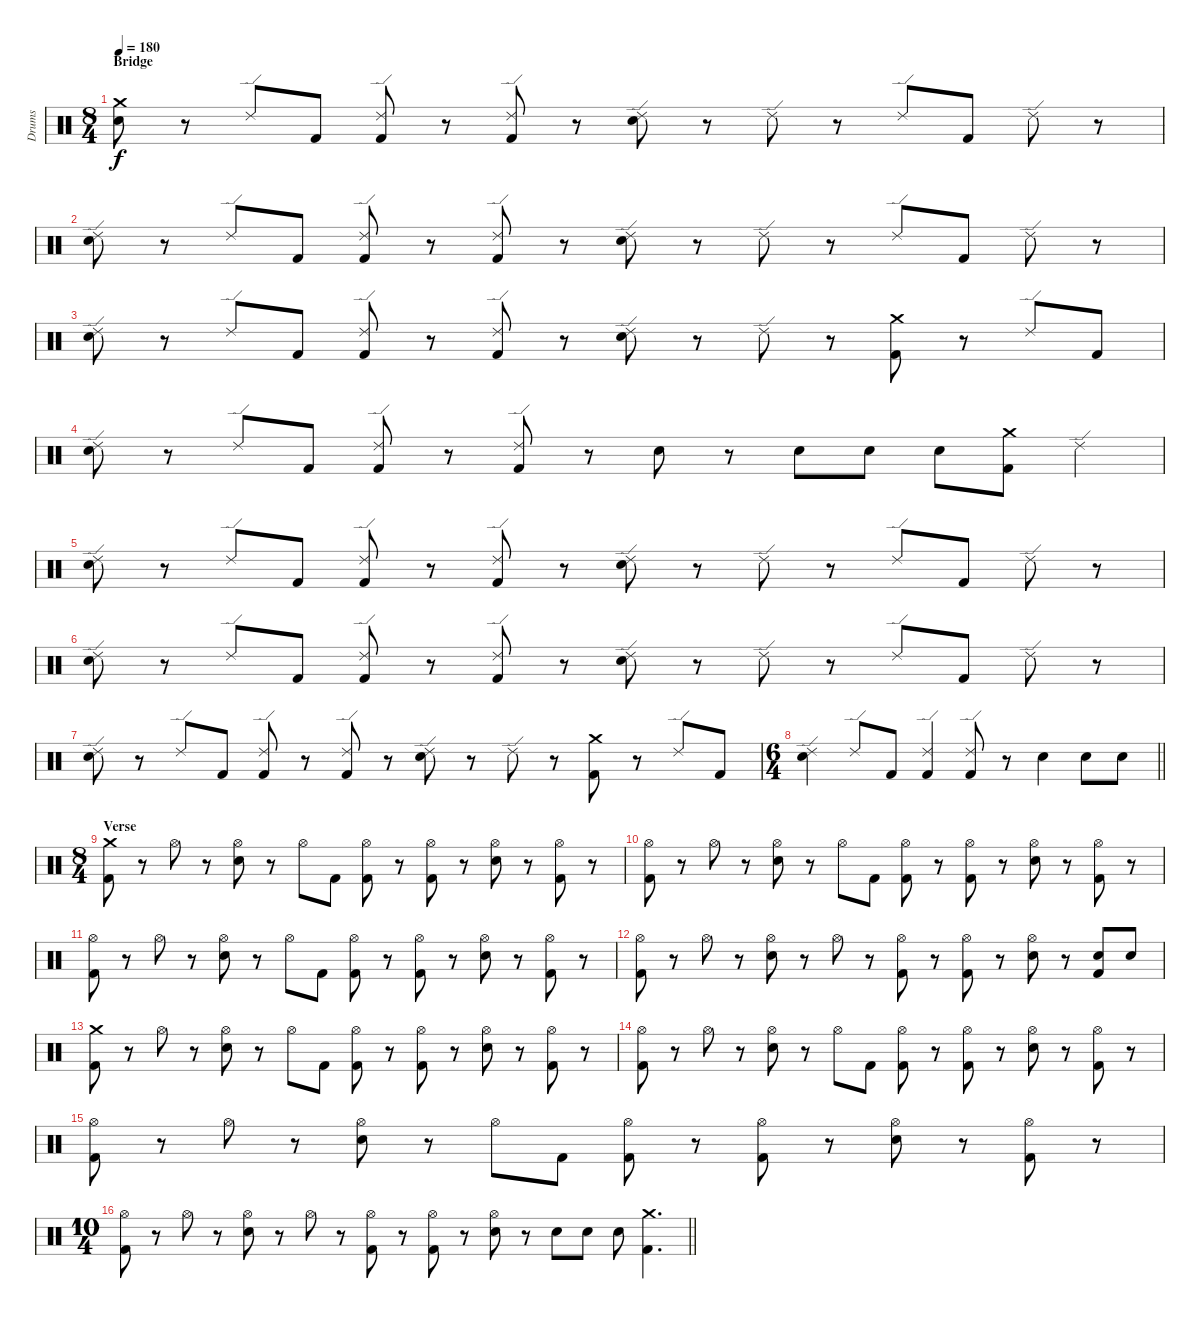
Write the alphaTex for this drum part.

\track ("Drums" "Drums") {instrument percussion}
\staff {score}
\articulation defaults
\ts (8 4)
\section ("" "Bridge")
\tempo 180
\clef neutral
\ks c
("Crash medium (hit)" "Snare (hit) 2").8{dy f} r.8 "Ride (edge) 2".8 "Kick (hit) 2".8 ("Ride (edge) 2" "Kick (hit) 2").8 r.8 ("Kick (hit) 2" "Ride (edge) 2").8 r.8 ("Ride (edge) 2" "Snare (hit) 2").8 r.8 "Ride (edge) 2".8 r.8 "Ride (edge) 2".8 "Kick (hit) 2".8 "Ride (edge) 2".8 r.8 |
("Ride (edge) 2" "Snare (hit) 2").8 r.8 "Ride (edge) 2".8 "Kick (hit) 2".8 ("Ride (edge) 2" "Kick (hit) 2").8 r.8 ("Ride (edge) 2" "Kick (hit) 2").8 r.8 ("Ride (edge) 2" "Snare (hit) 2").8 r.8 "Ride (edge) 2".8 r.8 "Ride (edge) 2".8 "Kick (hit) 2".8 "Ride (edge) 2".8 r.8 |
("Ride (edge) 2" "Snare (hit) 2").8 r.8 "Ride (edge) 2".8 "Kick (hit) 2".8 ("Ride (edge) 2" "Kick (hit) 2").8 r.8 ("Ride (edge) 2" "Kick (hit) 2").8 r.8 ("Ride (edge) 2" "Snare (hit) 2").8 r.8 "Ride (edge) 2".8 r.8 ("Crash medium (hit)" "Kick (hit) 2").8 r.8 "Ride (edge) 2".8 "Kick (hit) 2".8 |
("Ride (edge) 2" "Snare (hit) 2").8 r.8 "Ride (edge) 2".8 "Kick (hit) 2".8 ("Ride (edge) 2" "Kick (hit) 2").8 r.8 ("Ride (edge) 2" "Kick (hit) 2").8 r.8 "Snare (hit) 2".8 r.8 "Snare (hit) 2".8 "Snare (hit) 2".8 "Snare (hit) 2".8 ("Crash medium (hit)" "Kick (hit) 2").8 "Ride (edge) 2".4 |
("Ride (edge) 2" "Snare (hit) 2").8 r.8 "Ride (edge) 2".8 "Kick (hit) 2".8 ("Ride (edge) 2" "Kick (hit) 2").8 r.8 ("Kick (hit) 2" "Ride (edge) 2").8 r.8 ("Ride (edge) 2" "Snare (hit) 2").8 r.8 "Ride (edge) 2".8 r.8 "Ride (edge) 2".8 "Kick (hit) 2".8 "Ride (edge) 2".8 r.8 |
("Ride (edge) 2" "Snare (hit) 2").8 r.8 "Ride (edge) 2".8 "Kick (hit) 2".8 ("Ride (edge) 2" "Kick (hit) 2").8 r.8 ("Ride (edge) 2" "Kick (hit) 2").8 r.8 ("Ride (edge) 2" "Snare (hit) 2").8 r.8 "Ride (edge) 2".8 r.8 "Ride (edge) 2".8 "Kick (hit) 2".8 "Ride (edge) 2".8 r.8 |
("Ride (edge) 2" "Snare (hit) 2").8 r.8 "Ride (edge) 2".8 "Kick (hit) 2".8 ("Ride (edge) 2" "Kick (hit) 2").8 r.8 ("Ride (edge) 2" "Kick (hit) 2").8 r.8 ("Ride (edge) 2" "Snare (hit) 2").8 r.8 "Ride (edge) 2".8 r.8 ("Crash medium (hit)" "Kick (hit) 2").8 r.8 "Ride (edge) 2".8 "Kick (hit) 2".8 |
\ts (6 4)
\barLineRight lightlight
("Ride (edge) 2" "Snare (hit) 2").4 "Ride (edge) 2".8 "Kick (hit) 2".8 ("Ride (edge) 2" "Kick (hit) 2").4 ("Ride (edge) 2" "Kick (hit) 2").8 r.8 "Snare (hit) 2".4 "Snare (hit) 2".8 "Snare (hit) 2".8 |
\ts (8 4)
\section ("" "Verse")
("Crash medium (hit)" "Kick (hit) 2").8 r.8 "Hi-Hat (open)".8 r.8 ("Hi-Hat (open)" "Snare (hit) 2").8 r.8 "Hi-Hat (open)".8 "Kick (hit) 2".8 ("Hi-Hat (open)" "Kick (hit) 2").8 r.8 ("Hi-Hat (open)" "Kick (hit) 2").8 r.8 ("Hi-Hat (open)" "Snare (hit) 2").8 r.8 ("Hi-Hat (open)" "Kick (hit) 2").8 r.8 |
("Hi-Hat (open)" "Kick (hit) 2").8 r.8 "Hi-Hat (open)".8 r.8 ("Hi-Hat (open)" "Snare (hit) 2").8 r.8 "Hi-Hat (open)".8 "Kick (hit) 2".8 ("Hi-Hat (open)" "Kick (hit) 2").8 r.8 ("Hi-Hat (open)" "Kick (hit) 2").8 r.8 ("Hi-Hat (open)" "Snare (hit) 2").8 r.8 ("Hi-Hat (open)" "Kick (hit) 2").8 r.8 |
("Hi-Hat (open)" "Kick (hit) 2").8 r.8 "Hi-Hat (open)".8 r.8 ("Hi-Hat (open)" "Snare (hit) 2").8 r.8 "Hi-Hat (open)".8 "Kick (hit) 2".8 ("Hi-Hat (open)" "Kick (hit) 2").8 r.8 ("Hi-Hat (open)" "Kick (hit) 2").8 r.8 ("Hi-Hat (open)" "Snare (hit) 2").8 r.8 ("Hi-Hat (open)" "Kick (hit) 2").8 r.8 |
("Hi-Hat (open)" "Kick (hit) 2").8 r.8 "Hi-Hat (open)".8 r.8 ("Hi-Hat (open)" "Snare (hit) 2").8 r.8 "Hi-Hat (open)".8 r.8 ("Hi-Hat (open)" "Kick (hit) 2").8 r.8 ("Hi-Hat (open)" "Kick (hit) 2").8 r.8 ("Hi-Hat (open)" "Snare (hit) 2").8 r.8 ("Snare (hit) 2" "Kick (hit) 2").8 "Snare (hit) 2".8 |
("Crash medium (hit)" "Kick (hit) 2").8 r.8 "Hi-Hat (open)".8 r.8 ("Hi-Hat (open)" "Snare (hit) 2").8 r.8 "Hi-Hat (open)".8 "Kick (hit) 2".8 ("Hi-Hat (open)" "Kick (hit) 2").8 r.8 ("Hi-Hat (open)" "Kick (hit) 2").8 r.8 ("Hi-Hat (open)" "Snare (hit) 2").8 r.8 ("Hi-Hat (open)" "Kick (hit) 2").8 r.8 |
("Hi-Hat (open)" "Kick (hit) 2").8 r.8 "Hi-Hat (open)".8 r.8 ("Hi-Hat (open)" "Snare (hit) 2").8 r.8 "Hi-Hat (open)".8 "Kick (hit) 2".8 ("Hi-Hat (open)" "Kick (hit) 2").8 r.8 ("Hi-Hat (open)" "Kick (hit) 2").8 r.8 ("Hi-Hat (open)" "Snare (hit) 2").8 r.8 ("Hi-Hat (open)" "Kick (hit) 2").8 r.8 |
("Hi-Hat (open)" "Kick (hit) 2").8 r.8 "Hi-Hat (open)".8 r.8 ("Hi-Hat (open)" "Snare (hit) 2").8 r.8 "Hi-Hat (open)".8 "Kick (hit) 2".8 ("Hi-Hat (open)" "Kick (hit) 2").8 r.8 ("Hi-Hat (open)" "Kick (hit) 2").8 r.8 ("Hi-Hat (open)" "Snare (hit) 2").8 r.8 ("Hi-Hat (open)" "Kick (hit) 2").8 r.8 |
\ts (10 4)
\barLineRight lightlight
("Hi-Hat (open)" "Kick (hit) 2").8 r.8 "Hi-Hat (open)".8 r.8 ("Hi-Hat (open)" "Snare (hit) 2").8 r.8 "Hi-Hat (open)".8 r.8 ("Hi-Hat (open)" "Kick (hit) 2").8 r.8 ("Hi-Hat (open)" "Kick (hit) 2").8 r.8 ("Hi-Hat (open)" "Snare (hit) 2").8 r.8 "Snare (hit) 2".8 "Snare (hit) 2".8 "Snare (hit) 2".8 ("Crash medium (hit)" "Kick (hit) 2").4{d}
